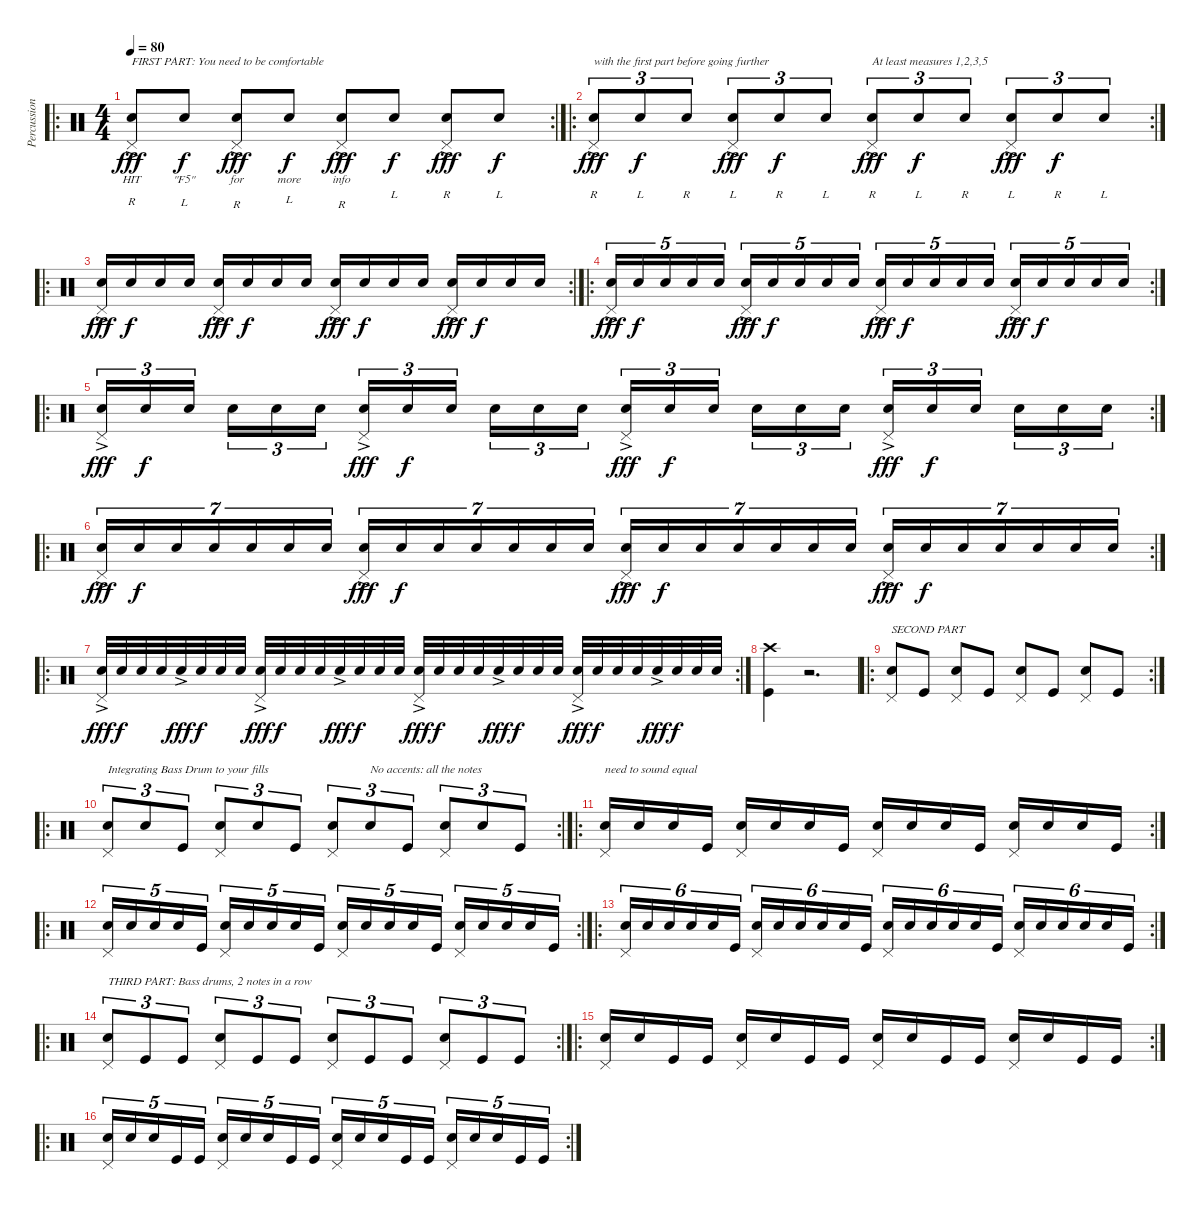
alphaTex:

\track ("Percussions" "Percussion") {instrument percussion}
\staff {score}
\articulation defaults
\ro
\rc 2
\ts (4 4)
\tempo 80
\clef neutral
\ks c
("Snare (hit) 2"{ac} "Pedal Hi-Hat (hit)").8{txt "FIRST PART: You need to be comfortable " lyrics (0 "HIT") lyrics (1 "") lyrics (2 "") lyrics (3 "R") lyrics (4 "") dy fff} "Snare (hit) 2".8{lyrics (0 "\"F5\"") lyrics (1 "") lyrics (2 "") lyrics (3 "L") lyrics (4 "") dy f} ("Snare (hit) 2"{ac} "Pedal Hi-Hat (hit)").8{lyrics (0 "for") lyrics (1 "") lyrics (2 "") lyrics (3 "R") lyrics (4 "") dy fff} "Snare (hit) 2".8{lyrics (0 "more") lyrics (1 "") lyrics (2 "") lyrics (3 "L") lyrics (4 "") dy f} ("Snare (hit) 2"{ac} "Pedal Hi-Hat (hit)").8{lyrics (0 "info") lyrics (1 "") lyrics (2 "") lyrics (3 "R") lyrics (4 "") dy fff} "Snare (hit) 2".8{lyrics (0 "") lyrics (1 "") lyrics (2 "") lyrics (3 "L") lyrics (4 "") dy f} ("Snare (hit) 2"{ac} "Pedal Hi-Hat (hit)").8{lyrics (0 "") lyrics (1 "") lyrics (2 "") lyrics (3 "R") lyrics (4 "") dy fff} "Snare (hit) 2".8{lyrics (0 "") lyrics (1 "") lyrics (2 "") lyrics (3 "L") lyrics (4 "") dy f} |
\ro
\rc 2
("Snare (hit) 2"{ac} "Pedal Hi-Hat (hit)").8{tu (3 2) txt "with the first part before going further" lyrics (0 "") lyrics (1 "") lyrics (2 "") lyrics (3 "R") lyrics (4 "") dy fff} "Snare (hit) 2".8{tu (3 2) lyrics (0 "") lyrics (1 "") lyrics (2 "") lyrics (3 "L") lyrics (4 "") dy f} "Snare (hit) 2".8{tu (3 2) lyrics (0 "") lyrics (1 "") lyrics (2 "") lyrics (3 "R") lyrics (4 "")} ("Snare (hit) 2"{ac} "Pedal Hi-Hat (hit)").8{tu (3 2) lyrics (0 "") lyrics (1 "") lyrics (2 "") lyrics (3 "L") lyrics (4 "") dy fff} "Snare (hit) 2".8{tu (3 2) lyrics (0 "") lyrics (1 "") lyrics (2 "") lyrics (3 "R") lyrics (4 "") dy f} "Snare (hit) 2".8{tu (3 2) lyrics (0 "") lyrics (1 "") lyrics (2 "") lyrics (3 "L") lyrics (4 "")} ("Snare (hit) 2"{ac} "Pedal Hi-Hat (hit)").8{tu (3 2) txt "At least measures 1,2,3,5" lyrics (0 "") lyrics (1 "") lyrics (2 "") lyrics (3 "R") lyrics (4 "") dy fff} "Snare (hit) 2".8{tu (3 2) lyrics (0 "") lyrics (1 "") lyrics (2 "") lyrics (3 "L") lyrics (4 "") dy f} "Snare (hit) 2".8{tu (3 2) lyrics (0 "") lyrics (1 "") lyrics (2 "") lyrics (3 "R") lyrics (4 "")} ("Snare (hit) 2"{ac} "Pedal Hi-Hat (hit)").8{tu (3 2) lyrics (0 "") lyrics (1 "") lyrics (2 "") lyrics (3 "L") lyrics (4 "") dy fff} "Snare (hit) 2".8{tu (3 2) lyrics (0 "") lyrics (1 "") lyrics (2 "") lyrics (3 "R") lyrics (4 "") dy f} "Snare (hit) 2".8{tu (3 2) lyrics (0 "") lyrics (1 "") lyrics (2 "") lyrics (3 "L") lyrics (4 "")} |
\ro
\rc 2
("Snare (hit) 2"{ac} "Pedal Hi-Hat (hit)").16{dy fff} "Snare (hit) 2".16{dy f} "Snare (hit) 2".16 "Snare (hit) 2".16 ("Snare (hit) 2"{ac} "Pedal Hi-Hat (hit)").16{dy fff} "Snare (hit) 2".16{dy f} "Snare (hit) 2".16 "Snare (hit) 2".16 ("Snare (hit) 2"{ac} "Pedal Hi-Hat (hit)").16{dy fff} "Snare (hit) 2".16{dy f} "Snare (hit) 2".16 "Snare (hit) 2".16 ("Snare (hit) 2"{ac} "Pedal Hi-Hat (hit)").16{dy fff} "Snare (hit) 2".16{dy f} "Snare (hit) 2".16 "Snare (hit) 2".16 |
\ro
\rc 2
("Snare (hit) 2"{ac} "Pedal Hi-Hat (hit)").16{tu (5 4) dy fff} "Snare (hit) 2".16{tu (5 4) dy f} "Snare (hit) 2".16{tu (5 4)} "Snare (hit) 2".16{tu (5 4)} "Snare (hit) 2".16{tu (5 4)} ("Snare (hit) 2"{ac} "Pedal Hi-Hat (hit)").16{tu (5 4) dy fff} "Snare (hit) 2".16{tu (5 4) dy f} "Snare (hit) 2".16{tu (5 4)} "Snare (hit) 2".16{tu (5 4)} "Snare (hit) 2".16{tu (5 4)} ("Snare (hit) 2"{ac} "Pedal Hi-Hat (hit)").16{tu (5 4) dy fff} "Snare (hit) 2".16{tu (5 4) dy f} "Snare (hit) 2".16{tu (5 4)} "Snare (hit) 2".16{tu (5 4)} "Snare (hit) 2".16{tu (5 4)} ("Snare (hit) 2"{ac} "Pedal Hi-Hat (hit)").16{tu (5 4) dy fff} "Snare (hit) 2".16{tu (5 4) dy f} "Snare (hit) 2".16{tu (5 4)} "Snare (hit) 2".16{tu (5 4)} "Snare (hit) 2".16{tu (5 4)} |
\ro
\rc 2
("Snare (hit) 2"{ac} "Pedal Hi-Hat (hit)").16{tu (3 2) dy fff} "Snare (hit) 2".16{tu (3 2) dy f} "Snare (hit) 2".16{tu (3 2)} "Snare (hit) 2".16{tu (3 2)} "Snare (hit) 2".16{tu (3 2)} "Snare (hit) 2".16{tu (3 2)} ("Snare (hit) 2"{ac} "Pedal Hi-Hat (hit)").16{tu (3 2) dy fff} "Snare (hit) 2".16{tu (3 2) dy f} "Snare (hit) 2".16{tu (3 2)} "Snare (hit) 2".16{tu (3 2)} "Snare (hit) 2".16{tu (3 2)} "Snare (hit) 2".16{tu (3 2)} ("Snare (hit) 2"{ac} "Pedal Hi-Hat (hit)").16{tu (3 2) dy fff} "Snare (hit) 2".16{tu (3 2) dy f} "Snare (hit) 2".16{tu (3 2)} "Snare (hit) 2".16{tu (3 2)} "Snare (hit) 2".16{tu (3 2)} "Snare (hit) 2".16{tu (3 2)} ("Snare (hit) 2"{ac} "Pedal Hi-Hat (hit)").16{tu (3 2) dy fff} "Snare (hit) 2".16{tu (3 2) dy f} "Snare (hit) 2".16{tu (3 2)} "Snare (hit) 2".16{tu (3 2)} "Snare (hit) 2".16{tu (3 2)} "Snare (hit) 2".16{tu (3 2)} |
\ro
\rc 2
("Snare (hit) 2"{ac} "Pedal Hi-Hat (hit)").16{tu (7 4) dy fff} "Snare (hit) 2".16{tu (7 4) dy f} "Snare (hit) 2".16{tu (7 4)} "Snare (hit) 2".16{tu (7 4)} "Snare (hit) 2".16{tu (7 4)} "Snare (hit) 2".16{tu (7 4)} "Snare (hit) 2".16{tu (7 4)} ("Snare (hit) 2"{ac} "Pedal Hi-Hat (hit)").16{tu (7 4) dy fff} "Snare (hit) 2".16{tu (7 4) dy f} "Snare (hit) 2".16{tu (7 4)} "Snare (hit) 2".16{tu (7 4)} "Snare (hit) 2".16{tu (7 4)} "Snare (hit) 2".16{tu (7 4)} "Snare (hit) 2".16{tu (7 4)} ("Snare (hit) 2"{ac} "Pedal Hi-Hat (hit)").16{tu (7 4) dy fff} "Snare (hit) 2".16{tu (7 4) dy f} "Snare (hit) 2".16{tu (7 4)} "Snare (hit) 2".16{tu (7 4)} "Snare (hit) 2".16{tu (7 4)} "Snare (hit) 2".16{tu (7 4)} "Snare (hit) 2".16{tu (7 4)} ("Snare (hit) 2"{ac} "Pedal Hi-Hat (hit)").16{tu (7 4) dy fff} "Snare (hit) 2".16{tu (7 4) dy f} "Snare (hit) 2".16{tu (7 4)} "Snare (hit) 2".16{tu (7 4)} "Snare (hit) 2".16{tu (7 4)} "Snare (hit) 2".16{tu (7 4)} "Snare (hit) 2".16{tu (7 4)} |
\ro
\rc 2
("Snare (hit) 2"{ac} "Pedal Hi-Hat (hit)").32{dy fff} "Snare (hit) 2".32{dy f} "Snare (hit) 2".32 "Snare (hit) 2".32 "Snare (hit) 2"{ac}.32{dy fff} "Snare (hit) 2".32{dy f} "Snare (hit) 2".32 "Snare (hit) 2".32 ("Snare (hit) 2"{ac} "Pedal Hi-Hat (hit)").32{dy fff} "Snare (hit) 2".32{dy f} "Snare (hit) 2".32 "Snare (hit) 2".32 "Snare (hit) 2"{ac}.32{dy fff} "Snare (hit) 2".32{dy f} "Snare (hit) 2".32 "Snare (hit) 2".32 ("Snare (hit) 2"{ac} "Pedal Hi-Hat (hit)").32{dy fff} "Snare (hit) 2".32{dy f} "Snare (hit) 2".32 "Snare (hit) 2".32 "Snare (hit) 2"{ac}.32{dy fff} "Snare (hit) 2".32{dy f} "Snare (hit) 2".32 "Snare (hit) 2".32 ("Snare (hit) 2"{ac} "Pedal Hi-Hat (hit)").32{dy fff} "Snare (hit) 2".32{dy f} "Snare (hit) 2".32 "Snare (hit) 2".32 "Snare (hit) 2"{ac}.32{dy fff} "Snare (hit) 2".32{dy f} "Snare (hit) 2".32 "Snare (hit) 2".32 |
("Crash high (hit)" "Kick (hit)").4 r.2{d} |
\ro
\rc 2
("Snare (hit) 2" "Pedal Hi-Hat (hit)").8{txt "SECOND PART"} "Kick (hit)".8 ("Snare (hit) 2" "Pedal Hi-Hat (hit)").8 "Kick (hit)".8 ("Snare (hit) 2" "Pedal Hi-Hat (hit)").8 "Kick (hit)".8 ("Snare (hit) 2" "Pedal Hi-Hat (hit)").8 "Kick (hit)".8 |
\ro
\rc 2
("Snare (hit) 2" "Pedal Hi-Hat (hit)").8{tu (3 2) txt "Integrating Bass Drum to your fills"} "Snare (hit) 2".8{tu (3 2)} "Kick (hit)".8{tu (3 2)} ("Snare (hit) 2" "Pedal Hi-Hat (hit)").8{tu (3 2)} "Snare (hit) 2".8{tu (3 2)} "Kick (hit)".8{tu (3 2)} ("Snare (hit) 2" "Pedal Hi-Hat (hit)").8{tu (3 2)} "Snare (hit) 2".8{tu (3 2) txt "No accents: all the notes"} "Kick (hit)".8{tu (3 2)} ("Snare (hit) 2" "Pedal Hi-Hat (hit)").8{tu (3 2)} "Snare (hit) 2".8{tu (3 2)} "Kick (hit)".8{tu (3 2)} |
\ro
\rc 2
("Snare (hit) 2" "Pedal Hi-Hat (hit)").16{txt "need to sound equal"} "Snare (hit) 2".16 "Snare (hit) 2".16 "Kick (hit)".16 ("Snare (hit) 2" "Pedal Hi-Hat (hit)").16 "Snare (hit) 2".16 "Snare (hit) 2".16 "Kick (hit)".16 ("Snare (hit) 2" "Pedal Hi-Hat (hit)").16 "Snare (hit) 2".16 "Snare (hit) 2".16 "Kick (hit)".16 ("Snare (hit) 2" "Pedal Hi-Hat (hit)").16 "Snare (hit) 2".16 "Snare (hit) 2".16 "Kick (hit)".16 |
\ro
\rc 2
("Snare (hit) 2" "Pedal Hi-Hat (hit)").16{tu (5 4)} "Snare (hit) 2".16{tu (5 4)} "Snare (hit) 2".16{tu (5 4)} "Snare (hit) 2".16{tu (5 4)} "Kick (hit)".16{tu (5 4)} ("Snare (hit) 2" "Pedal Hi-Hat (hit)").16{tu (5 4)} "Snare (hit) 2".16{tu (5 4)} "Snare (hit) 2".16{tu (5 4)} "Snare (hit) 2".16{tu (5 4)} "Kick (hit)".16{tu (5 4)} ("Snare (hit) 2" "Pedal Hi-Hat (hit)").16{tu (5 4)} "Snare (hit) 2".16{tu (5 4)} "Snare (hit) 2".16{tu (5 4)} "Snare (hit) 2".16{tu (5 4)} "Kick (hit)".16{tu (5 4)} ("Snare (hit) 2" "Pedal Hi-Hat (hit)").16{tu (5 4)} "Snare (hit) 2".16{tu (5 4)} "Snare (hit) 2".16{tu (5 4)} "Snare (hit) 2".16{tu (5 4)} "Kick (hit)".16{tu (5 4)} |
\ro
\rc 2
("Snare (hit) 2" "Pedal Hi-Hat (hit)").16{tu (6 4)} "Snare (hit) 2".16{tu (6 4)} "Snare (hit) 2".16{tu (6 4)} "Snare (hit) 2".16{tu (6 4)} "Snare (hit) 2".16{tu (6 4)} "Kick (hit)".16{tu (6 4)} ("Snare (hit) 2" "Pedal Hi-Hat (hit)").16{tu (6 4)} "Snare (hit) 2".16{tu (6 4)} "Snare (hit) 2".16{tu (6 4)} "Snare (hit) 2".16{tu (6 4)} "Snare (hit) 2".16{tu (6 4)} "Kick (hit)".16{tu (6 4)} ("Snare (hit) 2" "Pedal Hi-Hat (hit)").16{tu (6 4)} "Snare (hit) 2".16{tu (6 4)} "Snare (hit) 2".16{tu (6 4)} "Snare (hit) 2".16{tu (6 4)} "Snare (hit) 2".16{tu (6 4)} "Kick (hit)".16{tu (6 4)} ("Snare (hit) 2" "Pedal Hi-Hat (hit)").16{tu (6 4)} "Snare (hit) 2".16{tu (6 4)} "Snare (hit) 2".16{tu (6 4)} "Snare (hit) 2".16{tu (6 4)} "Snare (hit) 2".16{tu (6 4)} "Kick (hit)".16{tu (6 4)} |
\ro
\rc 2
("Snare (hit) 2" "Pedal Hi-Hat (hit)").8{tu (3 2) txt "THIRD PART: Bass drums, 2 notes in a row"} "Kick (hit)".8{tu (3 2)} "Kick (hit)".8{tu (3 2)} ("Snare (hit) 2" "Pedal Hi-Hat (hit)").8{tu (3 2)} "Kick (hit)".8{tu (3 2)} "Kick (hit)".8{tu (3 2)} ("Snare (hit) 2" "Pedal Hi-Hat (hit)").8{tu (3 2)} "Kick (hit)".8{tu (3 2)} "Kick (hit)".8{tu (3 2)} ("Snare (hit) 2" "Pedal Hi-Hat (hit)").8{tu (3 2)} "Kick (hit)".8{tu (3 2)} "Kick (hit)".8{tu (3 2)} |
\ro
\rc 2
("Snare (hit) 2" "Pedal Hi-Hat (hit)").16 "Snare (hit) 2".16 "Kick (hit)".16 "Kick (hit)".16 ("Snare (hit) 2" "Pedal Hi-Hat (hit)").16 "Snare (hit) 2".16 "Kick (hit)".16 "Kick (hit)".16 ("Snare (hit) 2" "Pedal Hi-Hat (hit)").16 "Snare (hit) 2".16 "Kick (hit)".16 "Kick (hit)".16 ("Snare (hit) 2" "Pedal Hi-Hat (hit)").16 "Snare (hit) 2".16 "Kick (hit)".16 "Kick (hit)".16 |
\ro
\rc 2
("Snare (hit) 2" "Pedal Hi-Hat (hit)").16{tu (5 4)} "Snare (hit) 2".16{tu (5 4)} "Snare (hit) 2".16{tu (5 4)} "Kick (hit)".16{tu (5 4)} "Kick (hit)".16{tu (5 4)} ("Snare (hit) 2" "Pedal Hi-Hat (hit)").16{tu (5 4)} "Snare (hit) 2".16{tu (5 4)} "Snare (hit) 2".16{tu (5 4)} "Kick (hit)".16{tu (5 4)} "Kick (hit)".16{tu (5 4)} ("Snare (hit) 2" "Pedal Hi-Hat (hit)").16{tu (5 4)} "Snare (hit) 2".16{tu (5 4)} "Snare (hit) 2".16{tu (5 4)} "Kick (hit)".16{tu (5 4)} "Kick (hit)".16{tu (5 4)} ("Snare (hit) 2" "Pedal Hi-Hat (hit)").16{tu (5 4)} "Snare (hit) 2".16{tu (5 4)} "Snare (hit) 2".16{tu (5 4)} "Kick (hit)".16{tu (5 4)} "Kick (hit)".16{tu (5 4)}
